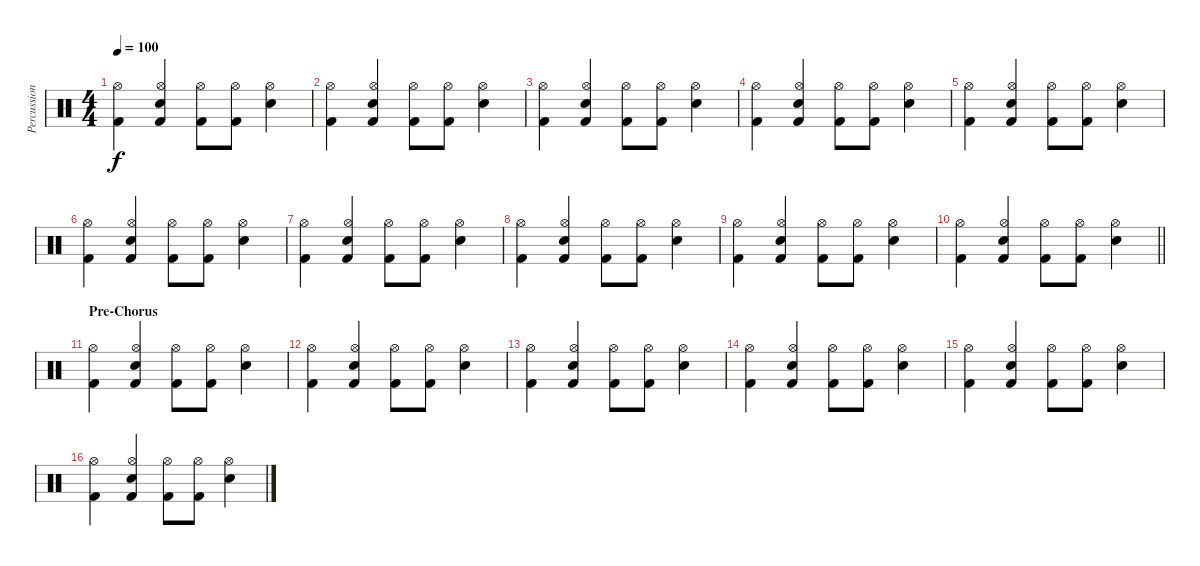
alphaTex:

\track ("Percussion" "Percussion") {instrument percussion}
\staff {score}
\articulation defaults
\ts (4 4)
\tempo 100
\clef neutral
\ks c
("Kick (hit) 2" "Hi-Hat (open)").4{dy f} ("Kick (hit) 2" "Snare (hit) 2" "Hi-Hat (open)").4 ("Kick (hit) 2" "Hi-Hat (open)").8 ("Kick (hit) 2" "Hi-Hat (open)").8 ("Snare (hit) 2" "Hi-Hat (open)").4 |
("Kick (hit) 2" "Hi-Hat (open)").4 ("Kick (hit) 2" "Snare (hit) 2" "Hi-Hat (open)").4 ("Kick (hit) 2" "Hi-Hat (open)").8 ("Kick (hit) 2" "Hi-Hat (open)").8 ("Snare (hit) 2" "Hi-Hat (open)").4 |
("Kick (hit) 2" "Hi-Hat (open)").4 ("Kick (hit) 2" "Snare (hit) 2" "Hi-Hat (open)").4 ("Kick (hit) 2" "Hi-Hat (open)").8 ("Kick (hit) 2" "Hi-Hat (open)").8 ("Snare (hit) 2" "Hi-Hat (open)").4 |
("Kick (hit) 2" "Hi-Hat (open)").4 ("Kick (hit) 2" "Snare (hit) 2" "Hi-Hat (open)").4 ("Kick (hit) 2" "Hi-Hat (open)").8 ("Kick (hit) 2" "Hi-Hat (open)").8 ("Snare (hit) 2" "Hi-Hat (open)").4 |
("Kick (hit) 2" "Hi-Hat (open)").4 ("Kick (hit) 2" "Snare (hit) 2" "Hi-Hat (open)").4 ("Kick (hit) 2" "Hi-Hat (open)").8 ("Kick (hit) 2" "Hi-Hat (open)").8 ("Snare (hit) 2" "Hi-Hat (open)").4 |
("Kick (hit) 2" "Hi-Hat (open)").4 ("Kick (hit) 2" "Snare (hit) 2" "Hi-Hat (open)").4 ("Kick (hit) 2" "Hi-Hat (open)").8 ("Kick (hit) 2" "Hi-Hat (open)").8 ("Snare (hit) 2" "Hi-Hat (open)").4 |
("Kick (hit) 2" "Hi-Hat (open)").4 ("Kick (hit) 2" "Snare (hit) 2" "Hi-Hat (open)").4 ("Kick (hit) 2" "Hi-Hat (open)").8 ("Kick (hit) 2" "Hi-Hat (open)").8 ("Snare (hit) 2" "Hi-Hat (open)").4 |
("Kick (hit) 2" "Hi-Hat (open)").4 ("Kick (hit) 2" "Snare (hit) 2" "Hi-Hat (open)").4 ("Kick (hit) 2" "Hi-Hat (open)").8 ("Kick (hit) 2" "Hi-Hat (open)").8 ("Snare (hit) 2" "Hi-Hat (open)").4 |
("Kick (hit) 2" "Hi-Hat (open)").4 ("Kick (hit) 2" "Snare (hit) 2" "Hi-Hat (open)").4 ("Kick (hit) 2" "Hi-Hat (open)").8 ("Kick (hit) 2" "Hi-Hat (open)").8 ("Snare (hit) 2" "Hi-Hat (open)").4 |
\barLineRight lightlight
("Kick (hit) 2" "Hi-Hat (open)").4 ("Kick (hit) 2" "Snare (hit) 2" "Hi-Hat (open)").4 ("Kick (hit) 2" "Hi-Hat (open)").8 ("Kick (hit) 2" "Hi-Hat (open)").8 ("Snare (hit) 2" "Hi-Hat (open)").4 |
\section ("" "Pre-Chorus")
("Kick (hit) 2" "Hi-Hat (open)").4 ("Kick (hit) 2" "Snare (hit) 2" "Hi-Hat (open)").4 ("Kick (hit) 2" "Hi-Hat (open)").8 ("Kick (hit) 2" "Hi-Hat (open)").8 ("Snare (hit) 2" "Hi-Hat (open)").4 |
("Kick (hit) 2" "Hi-Hat (open)").4 ("Kick (hit) 2" "Snare (hit) 2" "Hi-Hat (open)").4 ("Kick (hit) 2" "Hi-Hat (open)").8 ("Kick (hit) 2" "Hi-Hat (open)").8 ("Snare (hit) 2" "Hi-Hat (open)").4 |
("Kick (hit) 2" "Hi-Hat (open)").4 ("Kick (hit) 2" "Snare (hit) 2" "Hi-Hat (open)").4 ("Kick (hit) 2" "Hi-Hat (open)").8 ("Kick (hit) 2" "Hi-Hat (open)").8 ("Snare (hit) 2" "Hi-Hat (open)").4 |
("Kick (hit) 2" "Hi-Hat (open)").4 ("Kick (hit) 2" "Snare (hit) 2" "Hi-Hat (open)").4 ("Kick (hit) 2" "Hi-Hat (open)").8 ("Kick (hit) 2" "Hi-Hat (open)").8 ("Snare (hit) 2" "Hi-Hat (open)").4 |
("Kick (hit) 2" "Hi-Hat (open)").4 ("Kick (hit) 2" "Snare (hit) 2" "Hi-Hat (open)").4 ("Kick (hit) 2" "Hi-Hat (open)").8 ("Kick (hit) 2" "Hi-Hat (open)").8 ("Snare (hit) 2" "Hi-Hat (open)").4 |
("Kick (hit) 2" "Hi-Hat (open)").4 ("Kick (hit) 2" "Snare (hit) 2" "Hi-Hat (open)").4 ("Kick (hit) 2" "Hi-Hat (open)").8 ("Kick (hit) 2" "Hi-Hat (open)").8 ("Snare (hit) 2" "Hi-Hat (open)").4
